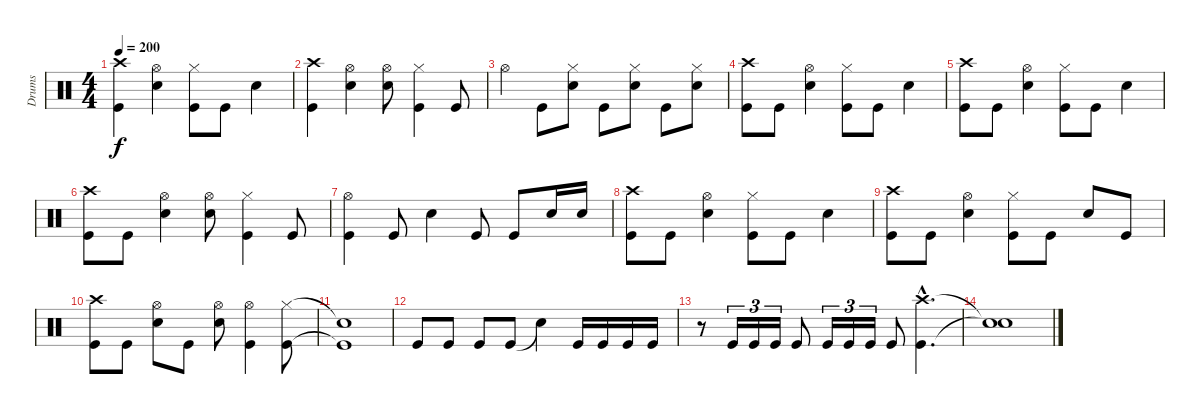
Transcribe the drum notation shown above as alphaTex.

\track ("Drums" "Drums") {instrument percussion}
\staff {score}
\articulation defaults
\ts (4 4)
\tempo 200
\clef neutral
\ks c
("Crash high (hit)" "Kick (hit)").4{dy f} ("Hi-Hat (open)" "Snare (hit) 2").4 ("Hi-Hat (closed)" "Kick (hit)").8 "Kick (hit)".8 "Snare (hit) 2".4 |
("Crash high (hit)" "Kick (hit)").4 ("Hi-Hat (open)" "Snare (hit) 2").4 ("Hi-Hat (open)" "Snare (hit) 2").8 ("Hi-Hat (closed)" "Kick (hit)").4 "Kick (hit)".8 |
"Hi-Hat (open)".4 "Kick (hit)".8 ("Hi-Hat (closed)" "Snare (hit) 2").8 "Kick (hit)".8 ("Hi-Hat (closed)" "Snare (hit) 2").8 "Kick (hit)".8 ("Hi-Hat (closed)" "Snare (hit) 2").8 |
("Crash high (hit)" "Kick (hit)").8 "Kick (hit)".8 ("Hi-Hat (open)" "Snare (hit) 2").4 ("Hi-Hat (closed)" "Kick (hit)").8 "Kick (hit)".8 "Snare (hit) 2".4 |
("Crash high (hit)" "Kick (hit)").8 "Kick (hit)".8 ("Hi-Hat (open)" "Snare (hit) 2").4 ("Hi-Hat (closed)" "Kick (hit)").8 "Kick (hit)".8 "Snare (hit) 2".4 |
("Crash high (hit)" "Kick (hit)").8 "Kick (hit)".8 ("Hi-Hat (open)" "Snare (hit) 2").4 ("Hi-Hat (open)" "Snare (hit) 2").8 ("Hi-Hat (closed)" "Kick (hit)").4 "Kick (hit)".8 |
("Hi-Hat (open)" "Kick (hit)").4 "Kick (hit)".8 "Snare (hit) 2".4 "Kick (hit)".8 "Kick (hit)".8 "Snare (hit) 2".16 "Snare (hit) 2".16 |
("Crash high (hit)" "Kick (hit)").8 "Kick (hit)".8 ("Hi-Hat (open)" "Snare (hit) 2").4 ("Hi-Hat (closed)" "Kick (hit)").8 "Kick (hit)".8 "Snare (hit) 2".4 |
("Crash high (hit)" "Kick (hit)").8 "Kick (hit)".8 ("Hi-Hat (open)" "Snare (hit) 2").4 ("Hi-Hat (closed)" "Kick (hit)").8 "Kick (hit)".8 "Snare (hit) 2".8 "Kick (hit)".8 |
("Crash high (hit)" "Kick (hit)").8 "Kick (hit)".8 ("Hi-Hat (open)" "Snare (hit) 2").8 "Kick (hit)".8 ("Hi-Hat (open)" "Snare (hit) 2").8 ("Hi-Hat (open)" "Kick (hit)").4 ("Hi-Hat (closed)" "Kick (hit)").8 |
("Snare (hit)"{t} "Kick (hit)"{t}).1 |
"Kick (hit)".8 "Kick (hit)".8 "Kick (hit)".8 "Kick (hit)".8 "Snare (hit)"{t}.4 "Kick (hit)".16 "Kick (hit)".16 "Kick (hit)".16 "Kick (hit)".16 |
r.8 "Kick (hit)".16{tu (3 2)} "Kick (hit)".16{tu (3 2)} "Kick (hit)".16{tu (3 2)} "Kick (hit)".8 "Kick (hit)".16{tu (3 2)} "Kick (hit)".16{tu (3 2)} "Kick (hit)".16{tu (3 2)} "Kick (hit)".8 ("Crash high (hit)"{hac} "Kick (hit)"{hac}).4{d} |
("Snare (hit)"{t} "Snare (hit)"{t}).1
